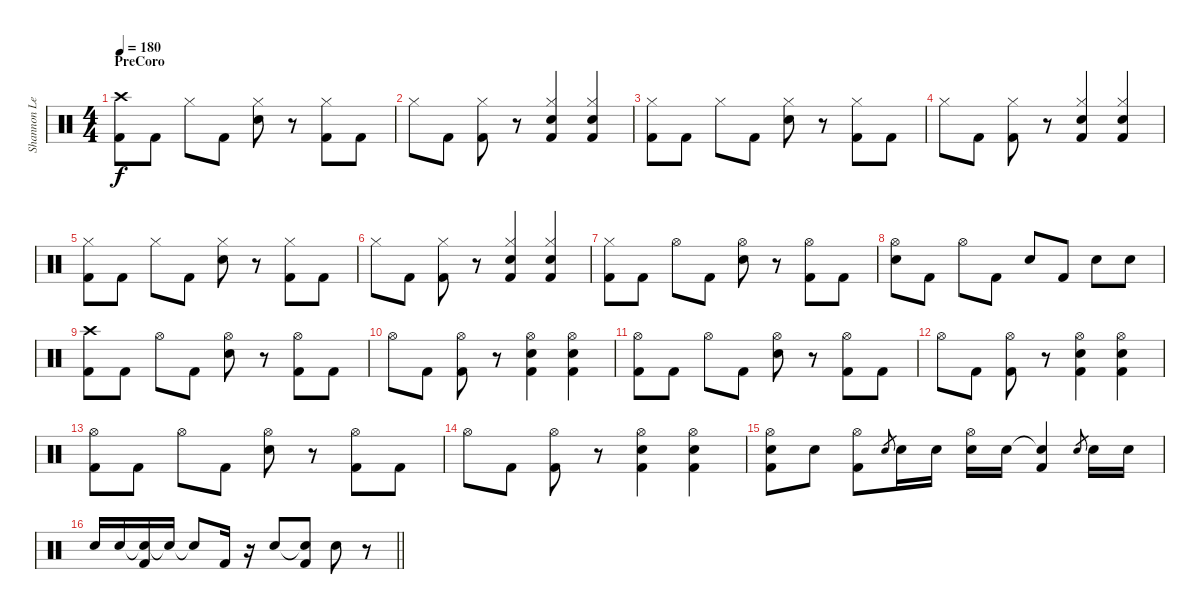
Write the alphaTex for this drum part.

\track ("Shannon Leto" "Shannon Le") {instrument percussion}
\staff {score}
\articulation defaults
\ts (4 4)
\section ("" "PreCoro")
\tempo 180
\clef neutral
\ks c
("Crash high (hit)" "Kick (hit) 2").8{dy f} "Kick (hit) 2".8 "Hi-Hat (closed)".8 "Kick (hit) 2".8 ("Hi-Hat (closed)" "Snare (hit) 2").8 r.8 ("Hi-Hat (closed)" "Kick (hit) 2").8 "Kick (hit) 2".8 |
"Hi-Hat (closed)".8 "Kick (hit) 2".8 ("Hi-Hat (closed)" "Kick (hit) 2").8 r.8 ("Hi-Hat (closed)" "Snare (hit) 2" "Kick (hit) 2").4 ("Hi-Hat (closed)" "Snare (hit) 2" "Kick (hit) 2").4 |
("Hi-Hat (closed)" "Kick (hit) 2").8 "Kick (hit) 2".8 "Hi-Hat (closed)".8 "Kick (hit) 2".8 ("Hi-Hat (closed)" "Snare (hit) 2").8 r.8 ("Hi-Hat (closed)" "Kick (hit) 2").8 "Kick (hit) 2".8 |
"Hi-Hat (closed)".8 "Kick (hit) 2".8 ("Hi-Hat (closed)" "Kick (hit) 2").8 r.8 ("Hi-Hat (closed)" "Snare (hit) 2" "Kick (hit) 2").4 ("Hi-Hat (closed)" "Snare (hit) 2" "Kick (hit) 2").4 |
("Hi-Hat (closed)" "Kick (hit) 2").8 "Kick (hit) 2".8 "Hi-Hat (closed)".8 "Kick (hit) 2".8 ("Hi-Hat (closed)" "Snare (hit) 2").8 r.8 ("Hi-Hat (closed)" "Kick (hit) 2").8 "Kick (hit) 2".8 |
"Hi-Hat (closed)".8 "Kick (hit) 2".8 ("Hi-Hat (closed)" "Kick (hit) 2").8 r.8 ("Hi-Hat (closed)" "Snare (hit) 2" "Kick (hit) 2").4 ("Hi-Hat (closed)" "Snare (hit) 2" "Kick (hit) 2").4 |
("Hi-Hat (closed)" "Kick (hit) 2").8 "Kick (hit) 2".8 "Hi-Hat (open)".8 "Kick (hit) 2".8 ("Hi-Hat (open)" "Snare (hit) 2").8 r.8 ("Hi-Hat (open)" "Kick (hit) 2").8 "Kick (hit) 2".8 |
("Hi-Hat (open)" "Snare (hit) 2").8 "Kick (hit) 2".8 "Hi-Hat (open)".8 "Kick (hit) 2".8 "Snare (hit) 2".8 "Kick (hit) 2".8 "Snare (hit) 2".8 "Snare (hit) 2".8 |
("Crash high (hit)" "Kick (hit) 2").8 "Kick (hit) 2".8 "Hi-Hat (open)".8 "Kick (hit) 2".8 ("Hi-Hat (open)" "Snare (hit) 2").8 r.8 ("Hi-Hat (open)" "Kick (hit) 2").8 "Kick (hit) 2".8 |
"Hi-Hat (open)".8 "Kick (hit) 2".8 ("Hi-Hat (open)" "Kick (hit) 2").8 r.8 ("Hi-Hat (open)" "Snare (hit) 2" "Kick (hit) 2").4 ("Hi-Hat (open)" "Snare (hit) 2" "Kick (hit) 2").4 |
("Hi-Hat (open)" "Kick (hit) 2").8 "Kick (hit) 2".8 "Hi-Hat (open)".8 "Kick (hit) 2".8 ("Hi-Hat (open)" "Snare (hit) 2").8 r.8 ("Hi-Hat (open)" "Kick (hit) 2").8 "Kick (hit) 2".8 |
"Hi-Hat (open)".8 "Kick (hit) 2".8 ("Hi-Hat (open)" "Kick (hit) 2").8 r.8 ("Hi-Hat (open)" "Snare (hit) 2" "Kick (hit) 2").4 ("Hi-Hat (open)" "Snare (hit) 2" "Kick (hit) 2").4 |
("Hi-Hat (open)" "Kick (hit) 2").8 "Kick (hit) 2".8 "Hi-Hat (open)".8 "Kick (hit) 2".8 ("Hi-Hat (open)" "Snare (hit) 2").8 r.8 ("Hi-Hat (open)" "Kick (hit) 2").8 "Kick (hit) 2".8 |
"Hi-Hat (open)".8 "Kick (hit) 2".8 ("Hi-Hat (open)" "Kick (hit) 2").8 r.8 ("Hi-Hat (open)" "Snare (hit) 2" "Kick (hit) 2").4 ("Hi-Hat (open)" "Snare (hit) 2" "Kick (hit) 2").4 |
("Hi-Hat (open)" "Snare (hit) 2" "Kick (hit) 2").8 "Snare (hit) 2".8 ("Hi-Hat (open)" "Kick (hit) 2").8 "Snare (hit) 2".8{gr} "Snare (hit) 2".16 "Snare (hit) 2".16 ("Hi-Hat (open)" "Snare (hit) 2").16 "Snare (hit) 2".16 ("Snare (hit)"{t} "Kick (hit) 2").4 "Snare (hit) 2".8{gr} "Snare (hit) 2".16 "Snare (hit) 2".16 |
\barLineRight lightlight "Snare (hit) 2".16 "Snare (hit) 2".16
("Snare (hit) 2"{t} "Kick (hit) 2").16 "Snare (hit) 2"{t}.16 "Snare (hit)"{t}.8 "Kick (hit) 2".16 r.16 "Snare (hit) 2".8 ("Snare (hit)"{t} "Kick (hit) 2").8 "Snare (hit) 2".8 r.8
